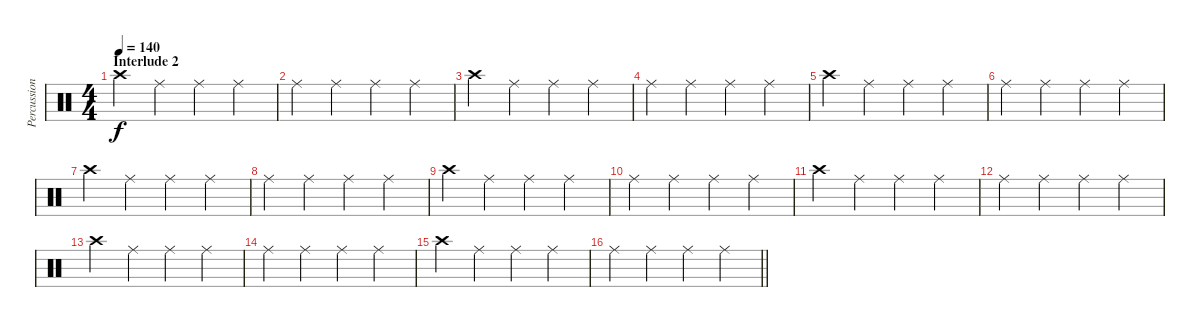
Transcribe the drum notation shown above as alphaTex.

\track ("Percussion" "Percussion") {instrument percussion}
\staff {score}
\articulation defaults
\ts (4 4)
\section ("" "Interlude 2")
\tempo 140
\clef neutral
\ks c "Crash high (hit)".4{dy f} "Ride (middle)".4 "Ride (middle)".4 "Ride (middle)".4
|
"Ride (middle)".4 "Ride (middle)".4 "Ride (middle)".4 "Ride (middle)".4 |
"Crash high (hit)".4 "Ride (middle)".4 "Ride (middle)".4 "Ride (middle)".4 |
"Ride (middle)".4 "Ride (middle)".4 "Ride (middle)".4 "Ride (middle)".4 |
"Crash high (hit)".4 "Ride (middle)".4 "Ride (middle)".4 "Ride (middle)".4 |
"Ride (middle)".4 "Ride (middle)".4 "Ride (middle)".4 "Ride (middle)".4 |
"Crash high (hit)".4 "Ride (middle)".4 "Ride (middle)".4 "Ride (middle)".4 |
"Ride (middle)".4 "Ride (middle)".4 "Ride (middle)".4 "Ride (middle)".4 |
"Crash high (hit)".4 "Ride (middle)".4 "Ride (middle)".4 "Ride (middle)".4 |
"Ride (middle)".4 "Ride (middle)".4 "Ride (middle)".4 "Ride (middle)".4 |
"Crash high (hit)".4 "Ride (middle)".4 "Ride (middle)".4 "Ride (middle)".4 |
"Ride (middle)".4 "Ride (middle)".4 "Ride (middle)".4 "Ride (middle)".4 |
"Crash high (hit)".4 "Ride (middle)".4 "Ride (middle)".4 "Ride (middle)".4 |
"Ride (middle)".4 "Ride (middle)".4 "Ride (middle)".4 "Ride (middle)".4 |
"Crash high (hit)".4 "Ride (middle)".4 "Ride (middle)".4 "Ride (middle)".4 |
\barLineRight lightlight "Ride (middle)".4 "Ride (middle)".4 "Ride (middle)".4 "Ride (middle)".4
